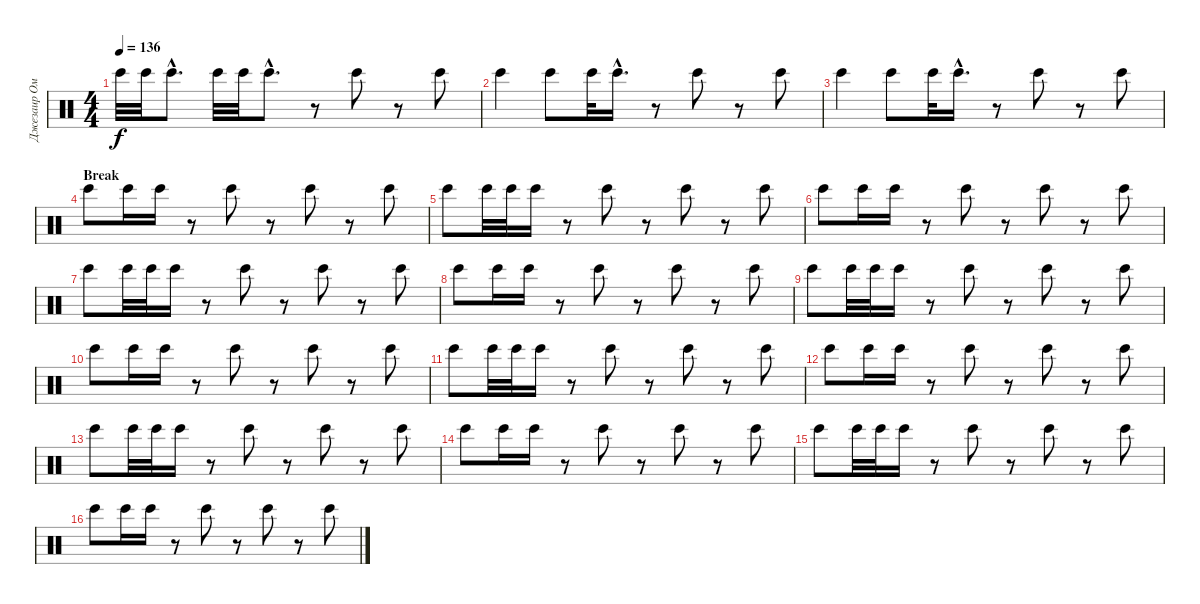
\track ("Джезаир Омер - Бонго" "Джезаир Ом") {instrument percussion}
\staff {score}
\articulation defaults
\ts (4 4)
\tempo 136
\clef neutral
\ks c "Bongo High (hit)".32{dy f} "Bongo High (hit)".32 "Bongo High (hit)"{hac}.8{d} "Bongo High (hit)".32 "Bongo High (hit)".32 "Bongo High (hit)"{hac}.8{d}
r.8 "Bongo High (hit)".8 r.8 "Bongo High (hit)".8 |
"Bongo High (hit)".4 "Bongo High (hit)".8 "Bongo High (hit)".32 "Bongo High (hit)"{hac}.16{d} r.8 "Bongo High (hit)".8 r.8 "Bongo High (hit)".8 |
"Bongo High (hit)".4 "Bongo High (hit)".8 "Bongo High (hit)".32 "Bongo High (hit)"{hac}.16{d} r.8 "Bongo High (hit)".8 r.8 "Bongo High (hit)".8 |
\section ("" "Break")
"Bongo High (hit)".8 "Bongo High (hit)".16 "Bongo High (hit)".16 r.8 "Bongo High (hit)".8 r.8 "Bongo High (hit)".8 r.8 "Bongo High (hit)".8 |
"Bongo High (hit)".8 "Bongo High (hit)".32 "Bongo High (hit)".32 "Bongo High (hit)".16 r.8 "Bongo High (hit)".8 r.8 "Bongo High (hit)".8 r.8 "Bongo High (hit)".8 |
"Bongo High (hit)".8 "Bongo High (hit)".16 "Bongo High (hit)".16 r.8 "Bongo High (hit)".8 r.8 "Bongo High (hit)".8 r.8 "Bongo High (hit)".8 |
"Bongo High (hit)".8 "Bongo High (hit)".32 "Bongo High (hit)".32 "Bongo High (hit)".16 r.8 "Bongo High (hit)".8 r.8 "Bongo High (hit)".8 r.8 "Bongo High (hit)".8 |
"Bongo High (hit)".8 "Bongo High (hit)".16 "Bongo High (hit)".16 r.8 "Bongo High (hit)".8 r.8 "Bongo High (hit)".8 r.8 "Bongo High (hit)".8 |
"Bongo High (hit)".8 "Bongo High (hit)".32 "Bongo High (hit)".32 "Bongo High (hit)".16 r.8 "Bongo High (hit)".8 r.8 "Bongo High (hit)".8 r.8 "Bongo High (hit)".8 |
"Bongo High (hit)".8 "Bongo High (hit)".16 "Bongo High (hit)".16 r.8 "Bongo High (hit)".8 r.8 "Bongo High (hit)".8 r.8 "Bongo High (hit)".8 |
"Bongo High (hit)".8 "Bongo High (hit)".32 "Bongo High (hit)".32 "Bongo High (hit)".16 r.8 "Bongo High (hit)".8 r.8 "Bongo High (hit)".8 r.8 "Bongo High (hit)".8 |
"Bongo High (hit)".8 "Bongo High (hit)".16 "Bongo High (hit)".16 r.8 "Bongo High (hit)".8 r.8 "Bongo High (hit)".8 r.8 "Bongo High (hit)".8 |
"Bongo High (hit)".8 "Bongo High (hit)".32 "Bongo High (hit)".32 "Bongo High (hit)".16 r.8 "Bongo High (hit)".8 r.8 "Bongo High (hit)".8 r.8 "Bongo High (hit)".8 |
"Bongo High (hit)".8 "Bongo High (hit)".16 "Bongo High (hit)".16 r.8 "Bongo High (hit)".8 r.8 "Bongo High (hit)".8 r.8 "Bongo High (hit)".8 |
"Bongo High (hit)".8 "Bongo High (hit)".32 "Bongo High (hit)".32 "Bongo High (hit)".16 r.8 "Bongo High (hit)".8 r.8 "Bongo High (hit)".8 r.8 "Bongo High (hit)".8 |
"Bongo High (hit)".8 "Bongo High (hit)".16 "Bongo High (hit)".16 r.8 "Bongo High (hit)".8 r.8 "Bongo High (hit)".8 r.8 "Bongo High (hit)".8
